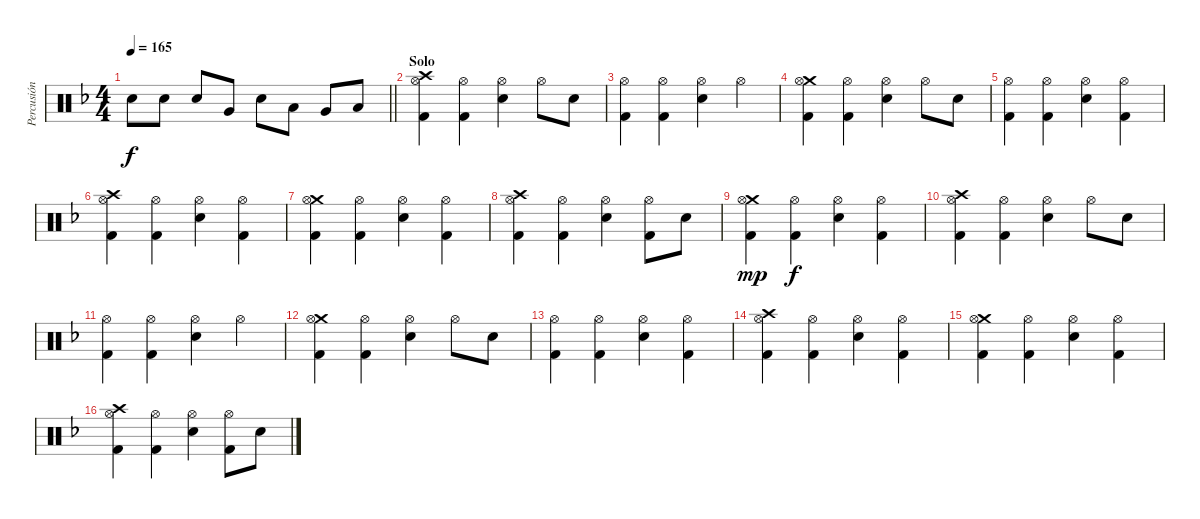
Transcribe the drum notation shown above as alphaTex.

\track ("Percusión" "Percusión") {instrument percussion}
\staff {score}
\articulation defaults
\ts (4 4)
\tempo 165
\clef neutral
\barLineRight lightlight
\ks f "Electric Snare (hit)".8{dy f} "Electric Snare (hit)".8 "Electric Snare (hit)".8 "Very Low Tom (hit)".8 "Electric Snare (hit)".8 "Low Tom (hit)".8 "Very Low Tom (hit)".8 "Low Floor Tom (hit)".8
|
\section ("" "Solo")
("Crash high (hit)" "Hi-Hat (open)" "Kick (hit) 2").4 ("Hi-Hat (open)" "Kick (hit) 2").4 ("Hi-Hat (open)" "Electric Snare (hit)").4 "Hi-Hat (open)".8 "Electric Snare (hit)".8 |
("Hi-Hat (open)" "Kick (hit) 2").4 ("Hi-Hat (open)" "Kick (hit) 2").4 ("Hi-Hat (open)" "Electric Snare (hit)").4 "Hi-Hat (open)".4 |
("Crash medium (hit)" "Hi-Hat (open)" "Kick (hit) 2").4 ("Hi-Hat (open)" "Kick (hit) 2").4 ("Hi-Hat (open)" "Electric Snare (hit)").4 "Hi-Hat (open)".8 "Electric Snare (hit)".8 |
("Hi-Hat (open)" "Kick (hit) 2").4 ("Hi-Hat (open)" "Kick (hit) 2").4 ("Hi-Hat (open)" "Electric Snare (hit)").4 ("Hi-Hat (open)" "Kick (hit) 2").4 |
("Crash high (hit)" "Hi-Hat (open)" "Kick (hit) 2").4 ("Hi-Hat (open)" "Kick (hit) 2").4 ("Hi-Hat (open)" "Electric Snare (hit)").4 ("Hi-Hat (open)" "Kick (hit) 2").4 |
("Crash medium (hit)" "Hi-Hat (open)" "Kick (hit) 2").4 ("Hi-Hat (open)" "Kick (hit) 2").4 ("Hi-Hat (open)" "Electric Snare (hit)").4 ("Hi-Hat (open)" "Kick (hit) 2").4 |
("Crash high (hit)" "Hi-Hat (open)" "Kick (hit) 2").4 ("Hi-Hat (open)" "Kick (hit) 2").4 ("Hi-Hat (open)" "Electric Snare (hit)").4 ("Hi-Hat (open)" "Kick (hit) 2").8 "Electric Snare (hit)".8 |
("Crash medium (hit)" "Hi-Hat (open)" "Kick (hit) 2").4{dy mp} ("Hi-Hat (open)" "Kick (hit) 2").4{dy f} ("Hi-Hat (open)" "Electric Snare (hit)").4 ("Hi-Hat (open)" "Kick (hit) 2").4 |
("Crash high (hit)" "Hi-Hat (open)" "Kick (hit) 2").4 ("Hi-Hat (open)" "Kick (hit) 2").4 ("Hi-Hat (open)" "Electric Snare (hit)").4 "Hi-Hat (open)".8 "Electric Snare (hit)".8 |
("Hi-Hat (open)" "Kick (hit) 2").4 ("Hi-Hat (open)" "Kick (hit) 2").4 ("Hi-Hat (open)" "Electric Snare (hit)").4 "Hi-Hat (open)".4 |
("Crash medium (hit)" "Hi-Hat (open)" "Kick (hit) 2").4 ("Hi-Hat (open)" "Kick (hit) 2").4 ("Hi-Hat (open)" "Electric Snare (hit)").4 "Hi-Hat (open)".8 "Electric Snare (hit)".8 |
("Hi-Hat (open)" "Kick (hit) 2").4 ("Hi-Hat (open)" "Kick (hit) 2").4 ("Hi-Hat (open)" "Electric Snare (hit)").4 ("Hi-Hat (open)" "Kick (hit) 2").4 |
("Crash high (hit)" "Hi-Hat (open)" "Kick (hit) 2").4 ("Hi-Hat (open)" "Kick (hit) 2").4 ("Hi-Hat (open)" "Electric Snare (hit)").4 ("Hi-Hat (open)" "Kick (hit) 2").4 |
("Crash medium (hit)" "Hi-Hat (open)" "Kick (hit) 2").4 ("Hi-Hat (open)" "Kick (hit) 2").4 ("Hi-Hat (open)" "Electric Snare (hit)").4 ("Hi-Hat (open)" "Kick (hit) 2").4 |
("Crash high (hit)" "Hi-Hat (open)" "Kick (hit) 2").4 ("Hi-Hat (open)" "Kick (hit) 2").4 ("Hi-Hat (open)" "Electric Snare (hit)").4 ("Hi-Hat (open)" "Kick (hit) 2").8 "Electric Snare (hit)".8
